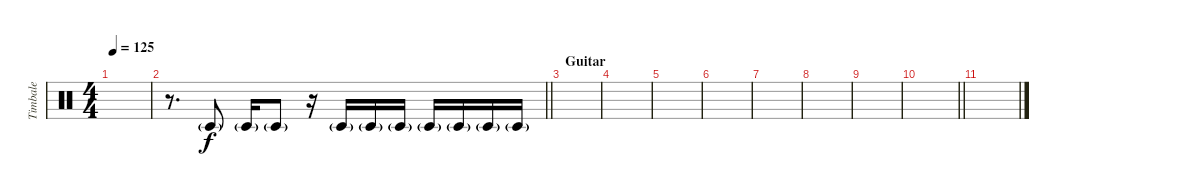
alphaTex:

\track ("Timbale" "Timbale") {instrument percussion}
\staff {score}
\articulation defaults
\ts (4 4)
\tempo 125
\clef neutral
\ks c
|
\barLineRight lightlight
r.8{d} "Timbale low (hit)"{g}.8 "Timbale low (hit)"{g}.16 "Timbale low (hit)"{g}.8 r.16 "Timbale low (hit)"{g}.16 "Timbale low (hit)"{g}.16 "Timbale low (hit)"{g}.16 "Timbale low (hit)"{g}.16 "Timbale low (hit)"{g}.16 "Timbale low (hit)"{g}.16 "Timbale low (hit)"{g}.16 |
\section ("" "Guitar")
|
|
|
|
|
|
|
\barLineRight lightlight
|
\section ("" "")
